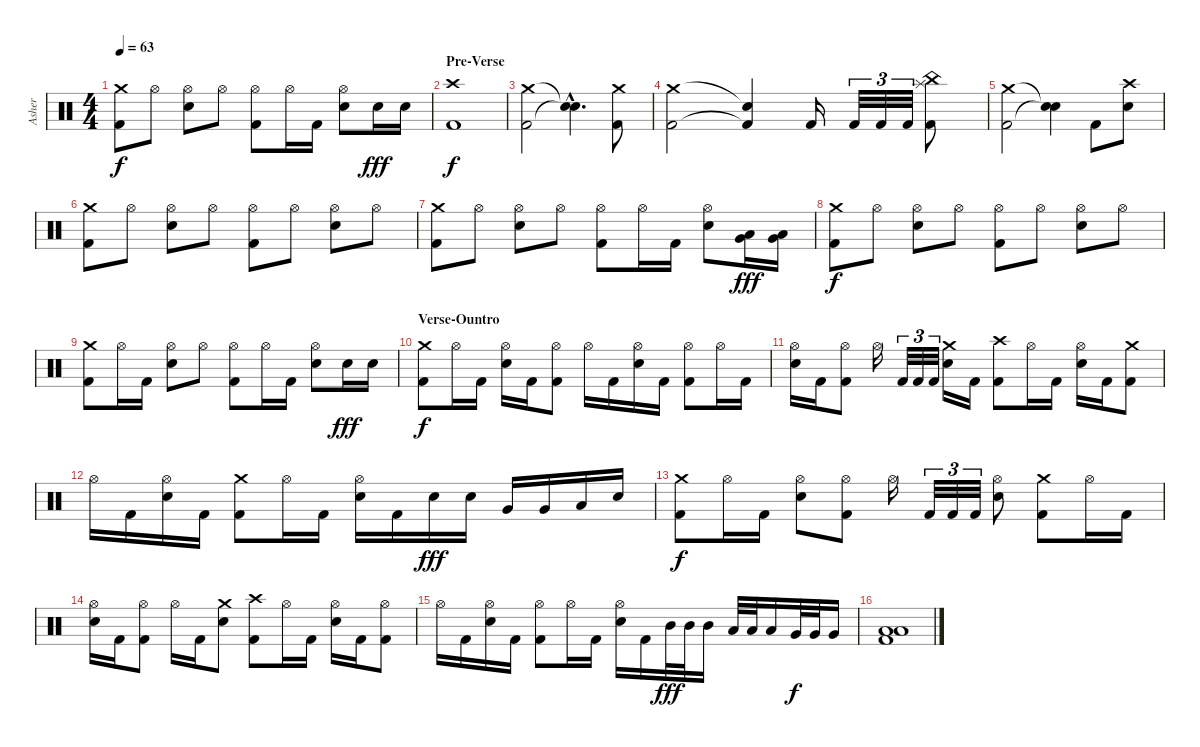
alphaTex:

\track ("Asher" "Asher") {instrument percussion}
\staff {score}
\articulation defaults
\ts (4 4)
\tempo 63
\clef neutral
\ks c
("Crash medium (hit)" "Kick (hit) 2").8{dy f} "Hi-Hat (open)".8 ("Hi-Hat (open)" "Electric Snare (hit)").8 "Hi-Hat (open)".8 ("Hi-Hat (open)" "Kick (hit) 2").8 "Hi-Hat (open)".16 "Kick (hit) 2".16 ("Hi-Hat (open)" "Electric Snare (hit)").8 "Electric Snare (hit)".16{dy fff} "Electric Snare (hit)".16 |
\section ("" "Pre-Verse")
("Crash high (hit)" "Kick (hit) 2").1{dy f} |
("Crash medium (hit)" "Kick (hit) 2").2 ("Snare (hit)"{hac t} "Snare (hit)"{hac t}).4{d} ("Crash medium (hit)" "Kick (hit) 2").8 |
("Crash medium (hit)" "Kick (hit) 2").2 ("Snare (hit)"{t} "Kick (hit) 2"{t}).4 "Kick (hit) 2".16 "Kick (hit) 2".32{tu (3 2)} "Kick (hit) 2".32{tu (3 2)} "Kick (hit) 2".32{tu (3 2)} ("China (hit)" "Splash (hit)" "Kick (hit) 2").8 |
("Crash medium (hit)" "Kick (hit) 2").2 ("Snare (hit)"{t} "Snare (hit)"{t}).4 "Kick (hit) 2".8 ("Crash high (hit)" "Electric Snare (hit)").8 |
("Crash medium (hit)" "Kick (hit) 2").8 "Hi-Hat (open)".8 ("Hi-Hat (open)" "Electric Snare (hit)").8 "Hi-Hat (open)".8 ("Hi-Hat (open)" "Kick (hit) 2").8 "Hi-Hat (open)".8 ("Hi-Hat (open)" "Electric Snare (hit)").8 "Hi-Hat (open)".8 |
("Crash medium (hit)" "Kick (hit) 2").8 "Hi-Hat (open)".8 ("Hi-Hat (open)" "Electric Snare (hit)").8 "Hi-Hat (open)".8 ("Hi-Hat (open)" "Kick (hit) 2").8 "Hi-Hat (open)".16 "Kick (hit) 2".16 ("Hi-Hat (open)" "Electric Snare (hit)").8 ("Very Low Tom (hit)" "Low Floor Tom (hit)").16{dy fff} ("Very Low Tom (hit)" "Low Floor Tom (hit)").16 |
("Crash medium (hit)" "Kick (hit) 2").8{dy f} "Hi-Hat (open)".8 ("Hi-Hat (open)" "Electric Snare (hit)").8 "Hi-Hat (open)".8 ("Hi-Hat (open)" "Kick (hit) 2").8 "Hi-Hat (open)".8 ("Hi-Hat (open)" "Electric Snare (hit)").8 "Hi-Hat (open)".8 |
("Crash medium (hit)" "Kick (hit) 2").8 "Hi-Hat (open)".16 "Kick (hit) 2".16 ("Hi-Hat (open)" "Electric Snare (hit)").8 "Hi-Hat (open)".8 ("Hi-Hat (open)" "Kick (hit) 2").8 "Hi-Hat (open)".16 "Kick (hit) 2".16 ("Hi-Hat (open)" "Electric Snare (hit)").8 "Electric Snare (hit)".16{dy fff} "Electric Snare (hit)".16 |
\section ("" "Verse-Ountro")
("Crash medium (hit)" "Kick (hit) 2").8{dy f} "Hi-Hat (open)".16 "Kick (hit) 2".16 ("Hi-Hat (open)" "Electric Snare (hit)").16 "Kick (hit) 2".16 ("Hi-Hat (open)" "Kick (hit) 2").8 "Hi-Hat (open)".16 "Kick (hit) 2".16 ("Hi-Hat (open)" "Electric Snare (hit)").16 "Kick (hit) 2".16 ("Hi-Hat (open)" "Kick (hit) 2").8 "Hi-Hat (open)".16 "Kick (hit) 2".16 |
("Hi-Hat (open)" "Electric Snare (hit)").16 "Kick (hit) 2".16 ("Hi-Hat (open)" "Kick (hit) 2").8 "Hi-Hat (open)".16 "Kick (hit) 2".32{tu (3 2)} "Kick (hit) 2".32{tu (3 2)} "Kick (hit) 2".32{tu (3 2)} ("Crash medium (hit)" "Electric Snare (hit)").16 "Kick (hit) 2".16 ("Crash high (hit)" "Kick (hit) 2").8 "Hi-Hat (open)".16 "Kick (hit) 2".16 ("Hi-Hat (open)" "Electric Snare (hit)").16 "Kick (hit) 2".16 ("Crash medium (hit)" "Kick (hit) 2").8 |
"Hi-Hat (open)".16 "Kick (hit) 2".16 ("Hi-Hat (open)" "Electric Snare (hit)").16 "Kick (hit) 2".16 ("Crash medium (hit)" "Kick (hit) 2").8 "Hi-Hat (open)".16 "Kick (hit) 2".16 ("Hi-Hat (open)" "Electric Snare (hit)").16 "Kick (hit) 2".16 "Electric Snare (hit)".16{dy fff} "Electric Snare (hit)".16 "Very Low Tom (hit)".16 "Very Low Tom (hit)".16 "Low Floor Tom (hit)".16 "Electric Snare (hit)".16 |
("Crash medium (hit)" "Kick (hit) 2").8{dy f} "Hi-Hat (open)".16 "Kick (hit) 2".16 ("Hi-Hat (open)" "Electric Snare (hit)").8 ("Hi-Hat (open)" "Kick (hit) 2").8 "Hi-Hat (open)".16 "Kick (hit) 2".32{tu (3 2)} "Kick (hit) 2".32{tu (3 2)} "Kick (hit) 2".32{tu (3 2)} ("Hi-Hat (open)" "Electric Snare (hit)").8 ("Crash medium (hit)" "Kick (hit) 2").8 "Hi-Hat (open)".16 "Kick (hit) 2".16 |
("Hi-Hat (open)" "Electric Snare (hit)").16 "Kick (hit) 2".16 ("Hi-Hat (open)" "Kick (hit) 2").8 "Hi-Hat (open)".16 "Kick (hit) 2".16 ("Crash medium (hit)" "Electric Snare (hit)").8 ("Crash high (hit)" "Kick (hit) 2").8 "Hi-Hat (open)".16 "Kick (hit) 2".16 ("Hi-Hat (open)" "Electric Snare (hit)").16 "Kick (hit) 2".16 ("Hi-Hat (open)" "Kick (hit) 2").8 |
"Hi-Hat (open)".16 "Kick (hit) 2".16 ("Hi-Hat (open)" "Electric Snare (hit)").16 "Kick (hit) 2".16 ("Hi-Hat (open)" "Kick (hit) 2").8 "Hi-Hat (open)".16 "Kick (hit) 2".16 ("Hi-Hat (open)" "Electric Snare (hit)").16 "Kick (hit) 2".16 "Mid Tom (hit)".32{dy fff} "Mid Tom (hit)".32 "Mid Tom (hit)".16 "Low Tom (hit)".32 "Low Tom (hit)".32 "Low Tom (hit)".16 "Very Low Tom (hit)".32{dy f} "Very Low Tom (hit)".32 "Very Low Tom (hit)".16 |
("Low Floor Tom (hit)" "Low Floor Tom (hit)" "Kick (hit) 2").1
